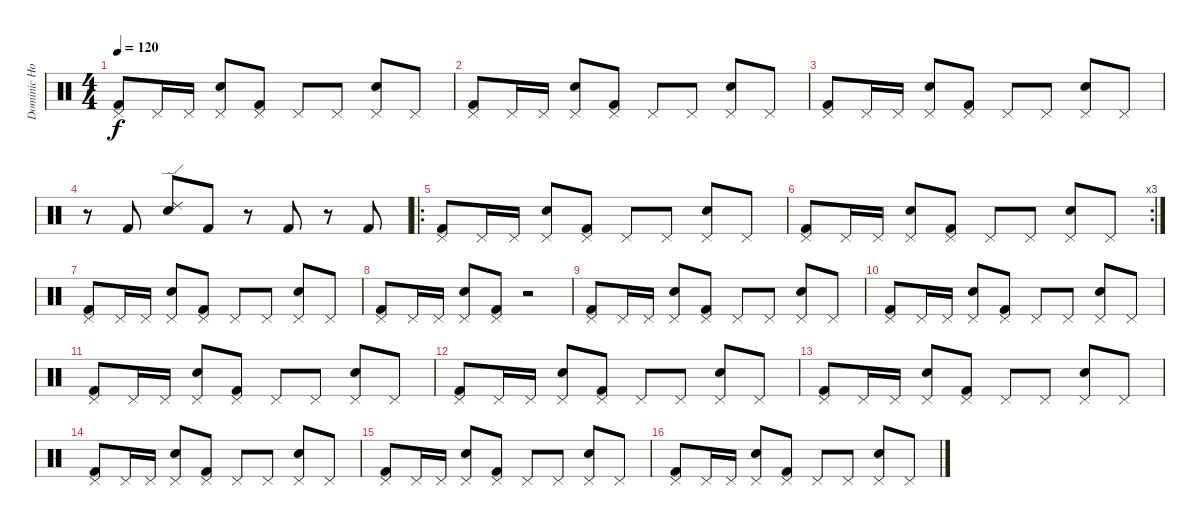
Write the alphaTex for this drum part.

\track ("Dominic Howard" "Dominic Ho") {instrument percussion}
\staff {score}
\articulation defaults
\ts (4 4)
\tempo 120
\clef neutral
\ks c
("Pedal Hi-Hat (hit)" "Kick (hit) 2").8{dy f} "Pedal Hi-Hat (hit)".16 "Pedal Hi-Hat (hit)".16 ("Pedal Hi-Hat (hit)" "Snare (hit) 2").8 ("Pedal Hi-Hat (hit)" "Kick (hit) 2").8 "Pedal Hi-Hat (hit)".8 "Pedal Hi-Hat (hit)".8 ("Pedal Hi-Hat (hit)" "Snare (hit) 2").8 "Pedal Hi-Hat (hit)".8 |
("Pedal Hi-Hat (hit)" "Kick (hit) 2").8 "Pedal Hi-Hat (hit)".16 "Pedal Hi-Hat (hit)".16 ("Pedal Hi-Hat (hit)" "Snare (hit) 2").8 ("Pedal Hi-Hat (hit)" "Kick (hit) 2").8 "Pedal Hi-Hat (hit)".8 "Pedal Hi-Hat (hit)".8 ("Pedal Hi-Hat (hit)" "Snare (hit) 2").8 "Pedal Hi-Hat (hit)".8 |
("Pedal Hi-Hat (hit)" "Kick (hit) 2").8 "Pedal Hi-Hat (hit)".16 "Pedal Hi-Hat (hit)".16 ("Pedal Hi-Hat (hit)" "Snare (hit) 2").8 ("Pedal Hi-Hat (hit)" "Kick (hit) 2").8 "Pedal Hi-Hat (hit)".8 "Pedal Hi-Hat (hit)".8 ("Pedal Hi-Hat (hit)" "Snare (hit) 2").8 "Pedal Hi-Hat (hit)".8 |
r.8 "Kick (hit) 2".8 ("Ride (edge) 2" "Snare (hit) 2").8 "Kick (hit) 2".8 r.8 "Kick (hit) 2".8 r.8 "Kick (hit) 2".8 |
\ro
("Pedal Hi-Hat (hit)" "Kick (hit) 2").8 "Pedal Hi-Hat (hit)".16 "Pedal Hi-Hat (hit)".16 ("Pedal Hi-Hat (hit)" "Snare (hit) 2").8 ("Pedal Hi-Hat (hit)" "Kick (hit) 2").8 "Pedal Hi-Hat (hit)".8 "Pedal Hi-Hat (hit)".8 ("Pedal Hi-Hat (hit)" "Snare (hit) 2").8 "Pedal Hi-Hat (hit)".8 |
\rc 3
("Pedal Hi-Hat (hit)" "Kick (hit) 2").8 "Pedal Hi-Hat (hit)".16 "Pedal Hi-Hat (hit)".16 ("Pedal Hi-Hat (hit)" "Snare (hit) 2").8 ("Pedal Hi-Hat (hit)" "Kick (hit) 2").8 "Pedal Hi-Hat (hit)".8 "Pedal Hi-Hat (hit)".8 ("Pedal Hi-Hat (hit)" "Snare (hit) 2").8 "Pedal Hi-Hat (hit)".8 |
("Pedal Hi-Hat (hit)" "Kick (hit) 2").8 "Pedal Hi-Hat (hit)".16 "Pedal Hi-Hat (hit)".16 ("Pedal Hi-Hat (hit)" "Snare (hit) 2").8 ("Pedal Hi-Hat (hit)" "Kick (hit) 2").8 "Pedal Hi-Hat (hit)".8 "Pedal Hi-Hat (hit)".8 ("Pedal Hi-Hat (hit)" "Snare (hit) 2").8 "Pedal Hi-Hat (hit)".8 |
("Pedal Hi-Hat (hit)" "Kick (hit) 2").8 "Pedal Hi-Hat (hit)".16 "Pedal Hi-Hat (hit)".16 ("Pedal Hi-Hat (hit)" "Snare (hit) 2").8 ("Pedal Hi-Hat (hit)" "Kick (hit) 2").8 r.2 |
("Pedal Hi-Hat (hit)" "Kick (hit) 2").8 "Pedal Hi-Hat (hit)".16 "Pedal Hi-Hat (hit)".16 ("Pedal Hi-Hat (hit)" "Snare (hit) 2").8 ("Pedal Hi-Hat (hit)" "Kick (hit) 2").8 "Pedal Hi-Hat (hit)".8 "Pedal Hi-Hat (hit)".8 ("Pedal Hi-Hat (hit)" "Snare (hit) 2").8 "Pedal Hi-Hat (hit)".8 |
("Pedal Hi-Hat (hit)" "Kick (hit) 2").8 "Pedal Hi-Hat (hit)".16 "Pedal Hi-Hat (hit)".16 ("Pedal Hi-Hat (hit)" "Snare (hit) 2").8 ("Pedal Hi-Hat (hit)" "Kick (hit) 2").8 "Pedal Hi-Hat (hit)".8 "Pedal Hi-Hat (hit)".8 ("Pedal Hi-Hat (hit)" "Snare (hit) 2").8 "Pedal Hi-Hat (hit)".8 |
("Pedal Hi-Hat (hit)" "Kick (hit) 2").8 "Pedal Hi-Hat (hit)".16 "Pedal Hi-Hat (hit)".16 ("Pedal Hi-Hat (hit)" "Snare (hit) 2").8 ("Pedal Hi-Hat (hit)" "Kick (hit) 2").8 "Pedal Hi-Hat (hit)".8 "Pedal Hi-Hat (hit)".8 ("Pedal Hi-Hat (hit)" "Snare (hit) 2").8 "Pedal Hi-Hat (hit)".8 |
("Pedal Hi-Hat (hit)" "Kick (hit) 2").8 "Pedal Hi-Hat (hit)".16 "Pedal Hi-Hat (hit)".16 ("Pedal Hi-Hat (hit)" "Snare (hit) 2").8 ("Pedal Hi-Hat (hit)" "Kick (hit) 2").8 "Pedal Hi-Hat (hit)".8 "Pedal Hi-Hat (hit)".8 ("Pedal Hi-Hat (hit)" "Snare (hit) 2").8 "Pedal Hi-Hat (hit)".8 |
("Pedal Hi-Hat (hit)" "Kick (hit) 2").8 "Pedal Hi-Hat (hit)".16 "Pedal Hi-Hat (hit)".16 ("Pedal Hi-Hat (hit)" "Snare (hit) 2").8 ("Pedal Hi-Hat (hit)" "Kick (hit) 2").8 "Pedal Hi-Hat (hit)".8 "Pedal Hi-Hat (hit)".8 ("Pedal Hi-Hat (hit)" "Snare (hit) 2").8 "Pedal Hi-Hat (hit)".8 |
("Pedal Hi-Hat (hit)" "Kick (hit) 2").8 "Pedal Hi-Hat (hit)".16 "Pedal Hi-Hat (hit)".16 ("Pedal Hi-Hat (hit)" "Snare (hit) 2").8 ("Pedal Hi-Hat (hit)" "Kick (hit) 2").8 "Pedal Hi-Hat (hit)".8 "Pedal Hi-Hat (hit)".8 ("Pedal Hi-Hat (hit)" "Snare (hit) 2").8 "Pedal Hi-Hat (hit)".8 |
("Pedal Hi-Hat (hit)" "Kick (hit) 2").8 "Pedal Hi-Hat (hit)".16 "Pedal Hi-Hat (hit)".16 ("Pedal Hi-Hat (hit)" "Snare (hit) 2").8 ("Pedal Hi-Hat (hit)" "Kick (hit) 2").8 "Pedal Hi-Hat (hit)".8 "Pedal Hi-Hat (hit)".8 ("Pedal Hi-Hat (hit)" "Snare (hit) 2").8 "Pedal Hi-Hat (hit)".8 |
("Pedal Hi-Hat (hit)" "Kick (hit) 2").8 "Pedal Hi-Hat (hit)".16 "Pedal Hi-Hat (hit)".16 ("Pedal Hi-Hat (hit)" "Snare (hit) 2").8 ("Pedal Hi-Hat (hit)" "Kick (hit) 2").8 "Pedal Hi-Hat (hit)".8 "Pedal Hi-Hat (hit)".8 ("Pedal Hi-Hat (hit)" "Snare (hit) 2").8 "Pedal Hi-Hat (hit)".8
